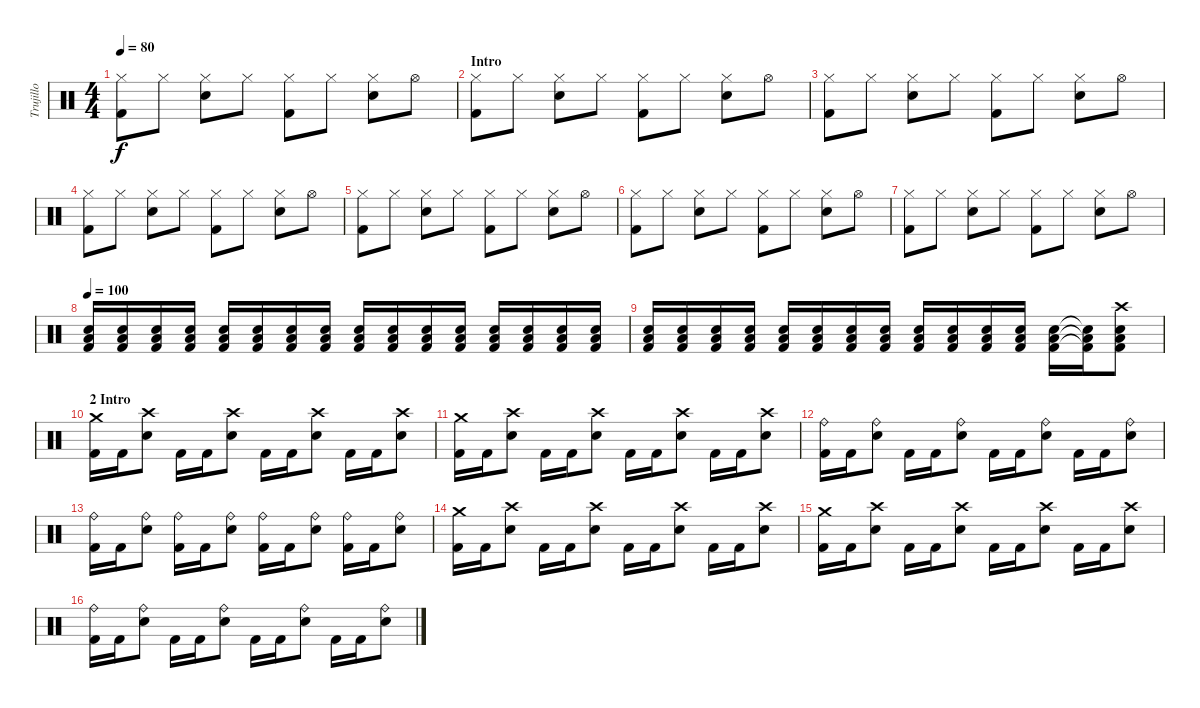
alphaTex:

\track ("Trujillo" "Trujillo") {instrument percussion}
\staff {score}
\articulation defaults
\ts (4 4)
\tempo 80
\clef neutral
\ks c
("Hi-Hat (closed)" "Kick (hit) 2").8{dy f volume 12} "Hi-Hat (closed)".8 ("Hi-Hat (closed)" "Electric Snare (hit)").8 "Hi-Hat (closed)".8 ("Hi-Hat (closed)" "Kick (hit) 2").8 "Hi-Hat (closed)".8 ("Hi-Hat (closed)" "Electric Snare (hit)").8 "Hi-Hat (open)".8 |
\section ("" "Intro")
("Hi-Hat (closed)" "Kick (hit) 2").8 "Hi-Hat (closed)".8 ("Hi-Hat (closed)" "Electric Snare (hit)").8 "Hi-Hat (closed)".8 ("Hi-Hat (closed)" "Kick (hit) 2").8 "Hi-Hat (closed)".8 ("Hi-Hat (closed)" "Electric Snare (hit)").8 "Hi-Hat (open)".8 |
("Hi-Hat (closed)" "Kick (hit) 2").8 "Hi-Hat (closed)".8 ("Hi-Hat (closed)" "Electric Snare (hit)").8 "Hi-Hat (closed)".8 ("Hi-Hat (closed)" "Kick (hit) 2").8 "Hi-Hat (closed)".8 ("Hi-Hat (closed)" "Electric Snare (hit)").8 "Hi-Hat (open)".8 |
("Hi-Hat (closed)" "Kick (hit) 2").8 "Hi-Hat (closed)".8 ("Hi-Hat (closed)" "Electric Snare (hit)").8 "Hi-Hat (closed)".8 ("Hi-Hat (closed)" "Kick (hit) 2").8 "Hi-Hat (closed)".8 ("Hi-Hat (closed)" "Electric Snare (hit)").8 "Hi-Hat (open)".8 |
("Hi-Hat (closed)" "Kick (hit) 2").8 "Hi-Hat (closed)".8 ("Hi-Hat (closed)" "Electric Snare (hit)").8 "Hi-Hat (closed)".8 ("Hi-Hat (closed)" "Kick (hit) 2").8 "Hi-Hat (closed)".8 ("Hi-Hat (closed)" "Electric Snare (hit)").8 "Hi-Hat (open)".8 |
("Hi-Hat (closed)" "Kick (hit) 2").8 "Hi-Hat (closed)".8 ("Hi-Hat (closed)" "Electric Snare (hit)").8 "Hi-Hat (closed)".8 ("Hi-Hat (closed)" "Kick (hit) 2").8 "Hi-Hat (closed)".8 ("Hi-Hat (closed)" "Electric Snare (hit)").8 "Hi-Hat (open)".8 |
("Hi-Hat (closed)" "Kick (hit) 2").8 "Hi-Hat (closed)".8 ("Hi-Hat (closed)" "Electric Snare (hit)").8 "Hi-Hat (closed)".8 ("Hi-Hat (closed)" "Kick (hit) 2").8 "Hi-Hat (closed)".8 ("Hi-Hat (closed)" "Electric Snare (hit)").8 "Hi-Hat (open)".8 |
\tempo 100
("Electric Snare (hit)" "Low Floor Tom (hit)" "Kick (hit) 2").16{volume 0} ("Electric Snare (hit)" "Low Floor Tom (hit)" "Kick (hit) 2").16{volume 16} ("Electric Snare (hit)" "Low Floor Tom (hit)" "Kick (hit) 2").16 ("Electric Snare (hit)" "Low Floor Tom (hit)" "Kick (hit) 2").16 ("Electric Snare (hit)" "Low Floor Tom (hit)" "Kick (hit) 2").16 ("Electric Snare (hit)" "Low Floor Tom (hit)" "Kick (hit) 2").16 ("Electric Snare (hit)" "Low Floor Tom (hit)" "Kick (hit) 2").16 ("Electric Snare (hit)" "Low Floor Tom (hit)" "Kick (hit) 2").16 ("Electric Snare (hit)" "Low Floor Tom (hit)" "Kick (hit) 2").16 ("Electric Snare (hit)" "Low Floor Tom (hit)" "Kick (hit) 2").16 ("Electric Snare (hit)" "Low Floor Tom (hit)" "Kick (hit) 2").16 ("Electric Snare (hit)" "Low Floor Tom (hit)" "Kick (hit) 2").16 ("Electric Snare (hit)" "Low Floor Tom (hit)" "Kick (hit) 2").16 ("Electric Snare (hit)" "Low Floor Tom (hit)" "Kick (hit) 2").16 ("Electric Snare (hit)" "Low Floor Tom (hit)" "Kick (hit) 2").16 ("Electric Snare (hit)" "Low Floor Tom (hit)" "Kick (hit) 2").16 |
("Electric Snare (hit)" "Low Floor Tom (hit)" "Kick (hit) 2").16 ("Electric Snare (hit)" "Low Floor Tom (hit)" "Kick (hit) 2").16 ("Electric Snare (hit)" "Low Floor Tom (hit)" "Kick (hit) 2").16 ("Electric Snare (hit)" "Low Floor Tom (hit)" "Kick (hit) 2").16 ("Electric Snare (hit)" "Low Floor Tom (hit)" "Kick (hit) 2").16 ("Electric Snare (hit)" "Low Floor Tom (hit)" "Kick (hit) 2").16 ("Electric Snare (hit)" "Low Floor Tom (hit)" "Kick (hit) 2").16 ("Electric Snare (hit)" "Low Floor Tom (hit)" "Kick (hit) 2").16 ("Electric Snare (hit)" "Low Floor Tom (hit)" "Kick (hit) 2").16 ("Electric Snare (hit)" "Low Floor Tom (hit)" "Kick (hit) 2").16 ("Electric Snare (hit)" "Low Floor Tom (hit)" "Kick (hit) 2").16 ("Electric Snare (hit)" "Low Floor Tom (hit)" "Kick (hit) 2").16 ("Electric Snare (hit)" "Low Floor Tom (hit)" "Kick (hit) 2").16 ("Electric Snare (hit)"{t} "Low Floor Tom (hit)"{t} "Kick (hit) 2"{t}).16 ("Crash high (hit)" "Low Floor Tom (hit)" "Electric Snare (hit)" "Kick (hit) 2").8 |
\section ("" "2 Intro")
("Crash medium (hit)" "Kick (hit) 2").16 "Kick (hit) 2".16 ("Crash high (hit)" "Electric Snare (hit)").8 "Kick (hit) 2".16 "Kick (hit) 2".16 ("Crash high (hit)" "Electric Snare (hit)").8 "Kick (hit) 2".16 "Kick (hit) 2".16 ("Crash high (hit)" "Electric Snare (hit)").8 "Kick (hit) 2".16 "Kick (hit) 2".16 ("Crash high (hit)" "Electric Snare (hit)").8 |
("Crash medium (hit)" "Kick (hit) 2").16 "Kick (hit) 2".16 ("Crash high (hit)" "Electric Snare (hit)").8 "Kick (hit) 2".16 "Kick (hit) 2".16 ("Crash high (hit)" "Electric Snare (hit)").8 "Kick (hit) 2".16 "Kick (hit) 2".16 ("Crash high (hit)" "Electric Snare (hit)").8 "Kick (hit) 2".16 "Kick (hit) 2".16 ("Crash high (hit)" "Electric Snare (hit)").8 |
("Ride (bell)" "Kick (hit) 2").16 "Kick (hit) 2".16 ("Ride (bell)" "Electric Snare (hit)").8 "Kick (hit) 2".16 "Kick (hit) 2".16 ("Ride (bell)" "Electric Snare (hit)").8 "Kick (hit) 2".16 "Kick (hit) 2".16 ("Ride (bell)" "Electric Snare (hit)").8 "Kick (hit) 2".16 "Kick (hit) 2".16 ("Ride (bell)" "Electric Snare (hit)").8 |
("Ride (bell)" "Kick (hit) 2").16 "Kick (hit) 2".16 ("Ride (bell)" "Electric Snare (hit)").8 ("Ride (bell)" "Kick (hit) 2").16 "Kick (hit) 2".16 ("Ride (bell)" "Electric Snare (hit)").8 ("Ride (bell)" "Kick (hit) 2").16 "Kick (hit) 2".16 ("Ride (bell)" "Electric Snare (hit)").8 ("Ride (bell)" "Kick (hit) 2").16 "Kick (hit) 2".16 ("Ride (bell)" "Electric Snare (hit)").8 |
("Crash medium (hit)" "Kick (hit) 2").16 "Kick (hit) 2".16 ("Crash high (hit)" "Electric Snare (hit)").8 "Kick (hit) 2".16 "Kick (hit) 2".16 ("Crash high (hit)" "Electric Snare (hit)").8 "Kick (hit) 2".16 "Kick (hit) 2".16 ("Crash high (hit)" "Electric Snare (hit)").8 "Kick (hit) 2".16 "Kick (hit) 2".16 ("Crash high (hit)" "Electric Snare (hit)").8 |
("Crash medium (hit)" "Kick (hit) 2").16 "Kick (hit) 2".16 ("Crash high (hit)" "Electric Snare (hit)").8 "Kick (hit) 2".16 "Kick (hit) 2".16 ("Crash high (hit)" "Electric Snare (hit)").8 "Kick (hit) 2".16 "Kick (hit) 2".16 ("Crash high (hit)" "Electric Snare (hit)").8 "Kick (hit) 2".16 "Kick (hit) 2".16 ("Crash high (hit)" "Electric Snare (hit)").8 |
("Ride (bell)" "Kick (hit) 2").16 "Kick (hit) 2".16 ("Ride (bell)" "Electric Snare (hit)").8 "Kick (hit) 2".16 "Kick (hit) 2".16 ("Ride (bell)" "Electric Snare (hit)").8 "Kick (hit) 2".16 "Kick (hit) 2".16 ("Ride (bell)" "Electric Snare (hit)").8 "Kick (hit) 2".16 "Kick (hit) 2".16 ("Ride (bell)" "Electric Snare (hit)").8
